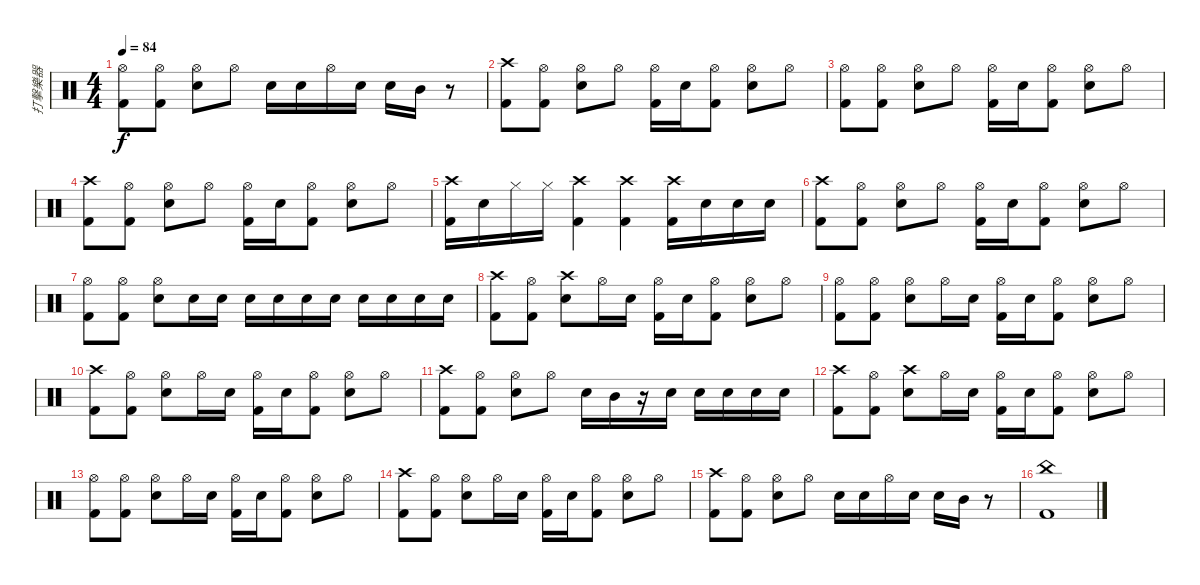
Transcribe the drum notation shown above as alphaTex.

\track ("打擊樂器" "打擊樂器") {instrument percussion}
\staff {score}
\articulation defaults
\ts (4 4)
\tempo 84
\clef neutral
\ks c
("Hi-Hat (open)" "Kick (hit) 2").8{dy f} ("Hi-Hat (open)" "Kick (hit) 2").8 ("Hi-Hat (open)" "Snare (hit) 2").8 "Hi-Hat (open)".8 "Snare (hit) 2".16 "Snare (hit) 2".16 "Hi-Hat (open)".16 "Snare (hit) 2".16 "Snare (hit) 2".16 "Mid Tom (hit)".16 r.8 |
("Crash high (hit)" "Kick (hit) 2").8 ("Hi-Hat (open)" "Kick (hit) 2").8 ("Hi-Hat (open)" "Snare (hit) 2").8 "Hi-Hat (open)".8 ("Hi-Hat (open)" "Kick (hit) 2").16 "Snare (hit) 2".16 ("Hi-Hat (open)" "Kick (hit) 2").8 ("Hi-Hat (open)" "Snare (hit) 2").8 "Hi-Hat (open)".8 |
("Hi-Hat (open)" "Kick (hit) 2").8 ("Hi-Hat (open)" "Kick (hit) 2").8 ("Hi-Hat (open)" "Snare (hit) 2").8 "Hi-Hat (open)".8 ("Hi-Hat (open)" "Kick (hit) 2").16 "Snare (hit) 2".16 ("Hi-Hat (open)" "Kick (hit) 2").8 ("Hi-Hat (open)" "Snare (hit) 2").8 "Hi-Hat (open)".8 |
("Crash high (hit)" "Kick (hit) 2").8 ("Hi-Hat (open)" "Kick (hit) 2").8 ("Hi-Hat (open)" "Snare (hit) 2").8 "Hi-Hat (open)".8 ("Hi-Hat (open)" "Kick (hit) 2").16 "Snare (hit) 2".16 ("Hi-Hat (open)" "Kick (hit) 2").8 ("Hi-Hat (open)" "Snare (hit) 2").8 "Hi-Hat (open)".8 |
("Crash high (hit)" "Kick (hit) 2").16 "Snare (hit) 2".16 "Hi-Hat (closed)".16 "Hi-Hat (closed)".16 ("Crash high (hit)" "Kick (hit) 2").4 ("Crash high (hit)" "Kick (hit) 2").4 ("Crash high (hit)" "Kick (hit) 2").16 "Snare (hit) 2".16 "Snare (hit) 2".16 "Snare (hit) 2".16 |
("Crash high (hit)" "Kick (hit) 2").8 ("Hi-Hat (open)" "Kick (hit) 2").8 ("Hi-Hat (open)" "Snare (hit) 2").8 "Hi-Hat (open)".8 ("Hi-Hat (open)" "Kick (hit) 2").16 "Snare (hit) 2".16 ("Hi-Hat (open)" "Kick (hit) 2").8 ("Hi-Hat (open)" "Snare (hit) 2").8 "Hi-Hat (open)".8 |
("Hi-Hat (open)" "Kick (hit) 2").8 ("Hi-Hat (open)" "Kick (hit) 2").8 ("Hi-Hat (open)" "Snare (hit) 2").8 "Snare (hit) 2".16 "Snare (hit) 2".16 "Snare (hit) 2".16 "Snare (hit) 2".16 "Snare (hit) 2".16 "Snare (hit) 2".16 "Snare (hit) 2".16 "Snare (hit) 2".16 "Snare (hit) 2".16 "Snare (hit) 2".16 |
("Crash high (hit)" "Kick (hit) 2").8 ("Hi-Hat (open)" "Kick (hit) 2").8 ("Crash high (hit)" "Snare (hit) 2").8 "Hi-Hat (open)".16 "Snare (hit) 2".16 ("Hi-Hat (open)" "Kick (hit) 2").16 "Snare (hit) 2".16 ("Hi-Hat (open)" "Kick (hit) 2").8 ("Hi-Hat (open)" "Snare (hit) 2").8 "Hi-Hat (open)".8 |
("Hi-Hat (open)" "Kick (hit) 2").8 ("Hi-Hat (open)" "Kick (hit) 2").8 ("Hi-Hat (open)" "Snare (hit) 2").8 "Hi-Hat (open)".16 "Snare (hit) 2".16 ("Hi-Hat (open)" "Kick (hit) 2").16 "Snare (hit) 2".16 ("Hi-Hat (open)" "Kick (hit) 2").8 ("Hi-Hat (open)" "Snare (hit) 2").8 "Hi-Hat (open)".8 |
("Crash high (hit)" "Kick (hit) 2").8 ("Hi-Hat (open)" "Kick (hit) 2").8 ("Hi-Hat (open)" "Snare (hit) 2").8 "Hi-Hat (open)".16 "Snare (hit) 2".16 ("Hi-Hat (open)" "Kick (hit) 2").16 "Snare (hit) 2".16 ("Hi-Hat (open)" "Kick (hit) 2").8 ("Hi-Hat (open)" "Snare (hit) 2").8 "Hi-Hat (open)".8 |
("Crash high (hit)" "Kick (hit) 2").8 ("Hi-Hat (open)" "Kick (hit) 2").8 ("Hi-Hat (open)" "Snare (hit) 2").8 "Hi-Hat (open)".8 "Snare (hit) 2".16 "Mid Tom (hit)".16 r.16 "Snare (hit) 2".16 "Snare (hit) 2".16 "Snare (hit) 2".16 "Snare (hit) 2".16 "Snare (hit) 2".16 |
("Crash high (hit)" "Kick (hit) 2").8 ("Hi-Hat (open)" "Kick (hit) 2").8 ("Crash high (hit)" "Snare (hit) 2").8 "Hi-Hat (open)".16 "Snare (hit) 2".16 ("Hi-Hat (open)" "Kick (hit) 2").16 "Snare (hit) 2".16 ("Hi-Hat (open)" "Kick (hit) 2").8 ("Hi-Hat (open)" "Snare (hit) 2").8 "Hi-Hat (open)".8 |
("Hi-Hat (open)" "Kick (hit) 2").8 ("Hi-Hat (open)" "Kick (hit) 2").8 ("Hi-Hat (open)" "Snare (hit) 2").8 "Hi-Hat (open)".16 "Snare (hit) 2".16 ("Hi-Hat (open)" "Kick (hit) 2").16 "Snare (hit) 2".16 ("Hi-Hat (open)" "Kick (hit) 2").8 ("Hi-Hat (open)" "Snare (hit) 2").8 "Hi-Hat (open)".8 |
("Crash high (hit)" "Kick (hit) 2").8 ("Hi-Hat (open)" "Kick (hit) 2").8 ("Hi-Hat (open)" "Snare (hit) 2").8 "Hi-Hat (open)".16 "Snare (hit) 2".16 ("Hi-Hat (open)" "Kick (hit) 2").16 "Snare (hit) 2".16 ("Hi-Hat (open)" "Kick (hit) 2").8 ("Hi-Hat (open)" "Snare (hit) 2").8 "Hi-Hat (open)".8 |
("Crash high (hit)" "Kick (hit) 2").8 ("Hi-Hat (open)" "Kick (hit) 2").8 ("Hi-Hat (open)" "Snare (hit) 2").8 "Hi-Hat (open)".8 "Snare (hit) 2".16 "Snare (hit) 2".16 "Hi-Hat (open)".16 "Snare (hit) 2".16 "Snare (hit) 2".16 "Mid Tom (hit)".16 r.8 |
("China (hit)" "Kick (hit) 2").1
